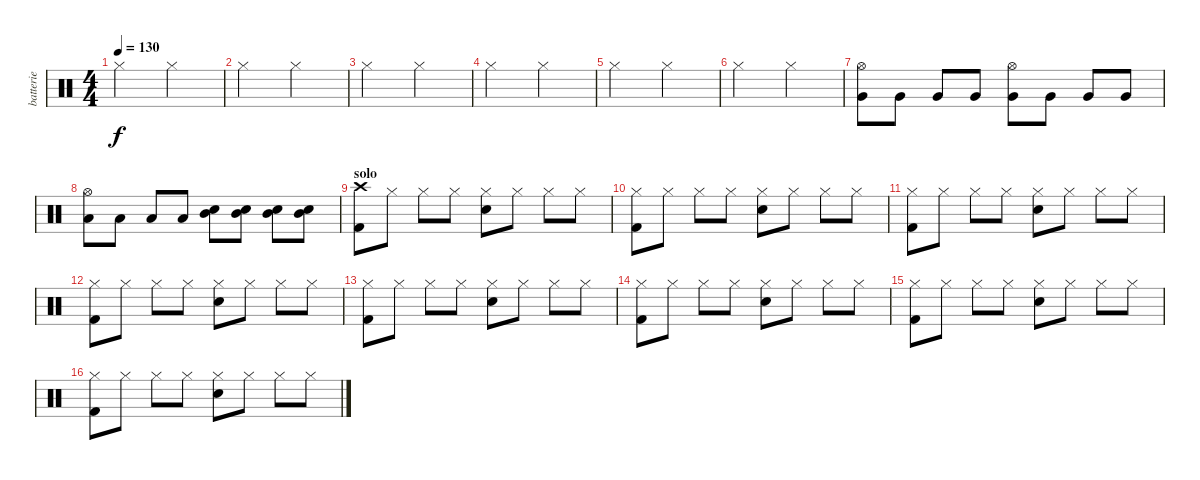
\track ("batterie" "batterie") {instrument percussion}
\staff {score}
\articulation defaults
\ts (4 4)
\tempo 130
\clef neutral
\ks c "Hi-Hat (closed)".2{dy f} "Hi-Hat (closed)".2
|
"Hi-Hat (closed)".2 "Hi-Hat (closed)".2 |
"Hi-Hat (closed)".2 "Hi-Hat (closed)".2 |
"Hi-Hat (closed)".2 "Hi-Hat (closed)".2 |
"Hi-Hat (closed)".2 "Hi-Hat (closed)".2 |
"Hi-Hat (closed)".2 "Hi-Hat (closed)".2 |
("Very Low Tom (hit)" "Hi-Hat (open)").8 "Very Low Tom (hit)".8 "Very Low Tom (hit)".8 "Very Low Tom (hit)".8 ("Very Low Tom (hit)" "Hi-Hat (open)").8 "Very Low Tom (hit)".8 "Very Low Tom (hit)".8 "Very Low Tom (hit)".8 |
("Low Tom (hit)" "Hi-Hat (open)").8 "Low Tom (hit)".8 "Low Tom (hit)".8 "Low Tom (hit)".8 ("Mid Tom (hit)" "Snare (hit) 2").8 ("Mid Tom (hit)" "Snare (hit) 2").8 ("Mid Tom (hit)" "Snare (hit) 2").8 ("Mid Tom (hit)" "Snare (hit) 2").8 |
\section ("" "solo")
("Crash high (hit)" "Kick (hit) 2").8 "Hi-Hat (closed)".8 "Hi-Hat (closed)".8 "Hi-Hat (closed)".8 ("Snare (hit) 2" "Hi-Hat (closed)").8 "Hi-Hat (closed)".8 "Hi-Hat (closed)".8 "Hi-Hat (closed)".8 |
("Kick (hit) 2" "Hi-Hat (closed)").8 "Hi-Hat (closed)".8 "Hi-Hat (closed)".8 "Hi-Hat (closed)".8 ("Snare (hit) 2" "Hi-Hat (closed)").8 "Hi-Hat (closed)".8 "Hi-Hat (closed)".8 "Hi-Hat (closed)".8 |
("Kick (hit) 2" "Hi-Hat (closed)").8 "Hi-Hat (closed)".8 "Hi-Hat (closed)".8 "Hi-Hat (closed)".8 ("Snare (hit) 2" "Hi-Hat (closed)").8 "Hi-Hat (closed)".8 "Hi-Hat (closed)".8 "Hi-Hat (closed)".8 |
("Kick (hit) 2" "Hi-Hat (closed)").8 "Hi-Hat (closed)".8 "Hi-Hat (closed)".8 "Hi-Hat (closed)".8 ("Snare (hit) 2" "Hi-Hat (closed)").8 "Hi-Hat (closed)".8 "Hi-Hat (closed)".8 "Hi-Hat (closed)".8 |
("Kick (hit) 2" "Hi-Hat (closed)").8 "Hi-Hat (closed)".8 "Hi-Hat (closed)".8 "Hi-Hat (closed)".8 ("Snare (hit) 2" "Hi-Hat (closed)").8 "Hi-Hat (closed)".8 "Hi-Hat (closed)".8 "Hi-Hat (closed)".8 |
("Kick (hit) 2" "Hi-Hat (closed)").8 "Hi-Hat (closed)".8 "Hi-Hat (closed)".8 "Hi-Hat (closed)".8 ("Snare (hit) 2" "Hi-Hat (closed)").8 "Hi-Hat (closed)".8 "Hi-Hat (closed)".8 "Hi-Hat (closed)".8 |
("Kick (hit) 2" "Hi-Hat (closed)").8 "Hi-Hat (closed)".8 "Hi-Hat (closed)".8 "Hi-Hat (closed)".8 ("Snare (hit) 2" "Hi-Hat (closed)").8 "Hi-Hat (closed)".8 "Hi-Hat (closed)".8 "Hi-Hat (closed)".8 |
("Kick (hit) 2" "Hi-Hat (closed)").8 "Hi-Hat (closed)".8 "Hi-Hat (closed)".8 "Hi-Hat (closed)".8 ("Snare (hit) 2" "Hi-Hat (closed)").8 "Hi-Hat (closed)".8 "Hi-Hat (closed)".8 "Hi-Hat (closed)".8
